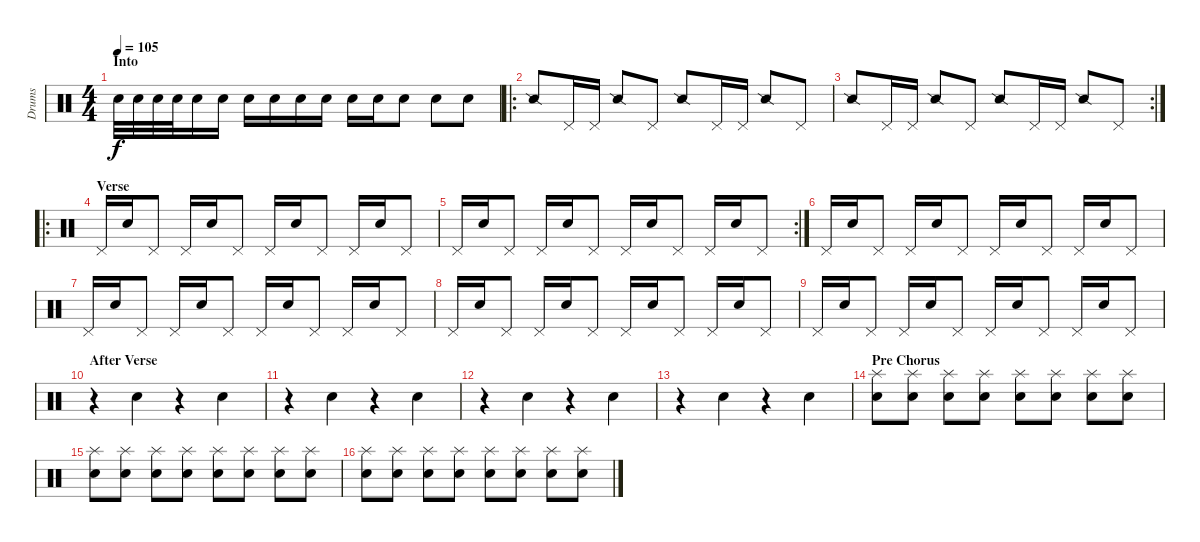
\track ("Drums" "Drums") {instrument percussion}
\staff {score}
\articulation defaults
\ts (4 4)
\section ("" "Into")
\tempo 105
\clef neutral
\ks c "Electric Snare (hit)".32{dy f} "Electric Snare (hit)".32 "Electric Snare (hit)".32 "Electric Snare (hit)".32 "Electric Snare (hit)".16 "Electric Snare (hit)".16 "Electric Snare (hit)".16 "Electric Snare (hit)".16 "Electric Snare (hit)".16 "Electric Snare (hit)".16 "Electric Snare (hit)".16 "Electric Snare (hit)".16 "Electric Snare (hit)".8 "Electric Snare (hit)".8 "Electric Snare (hit)".8
|
\ro "Snare (side stick) 2".8 "Pedal Hi-Hat (hit)".16 "Pedal Hi-Hat (hit)".16 "Snare (side stick) 2".8 "Pedal Hi-Hat (hit)".8 "Snare (side stick) 2".8 "Pedal Hi-Hat (hit)".16 "Pedal Hi-Hat (hit)".16 "Snare (side stick) 2".8 "Pedal Hi-Hat (hit)".8
|
\rc 2 "Snare (side stick) 2".8 "Pedal Hi-Hat (hit)".16 "Pedal Hi-Hat (hit)".16 "Snare (side stick) 2".8 "Pedal Hi-Hat (hit)".8 "Snare (side stick) 2".8 "Pedal Hi-Hat (hit)".16 "Pedal Hi-Hat (hit)".16 "Snare (side stick) 2".8 "Pedal Hi-Hat (hit)".8
|
\ro
\section ("" "Verse")
"Pedal Hi-Hat (hit)".16 "Electric Snare (hit)".16 "Pedal Hi-Hat (hit)".8 "Pedal Hi-Hat (hit)".16 "Electric Snare (hit)".16 "Pedal Hi-Hat (hit)".8 "Pedal Hi-Hat (hit)".16 "Electric Snare (hit)".16 "Pedal Hi-Hat (hit)".8 "Pedal Hi-Hat (hit)".16 "Electric Snare (hit)".16 "Pedal Hi-Hat (hit)".8 |
\rc 2 "Pedal Hi-Hat (hit)".16 "Electric Snare (hit)".16 "Pedal Hi-Hat (hit)".8 "Pedal Hi-Hat (hit)".16 "Electric Snare (hit)".16 "Pedal Hi-Hat (hit)".8 "Pedal Hi-Hat (hit)".16 "Electric Snare (hit)".16 "Pedal Hi-Hat (hit)".8 "Pedal Hi-Hat (hit)".16 "Electric Snare (hit)".16 "Pedal Hi-Hat (hit)".8
|
"Pedal Hi-Hat (hit)".16 "Electric Snare (hit)".16 "Pedal Hi-Hat (hit)".8 "Pedal Hi-Hat (hit)".16 "Electric Snare (hit)".16 "Pedal Hi-Hat (hit)".8 "Pedal Hi-Hat (hit)".16 "Electric Snare (hit)".16 "Pedal Hi-Hat (hit)".8 "Pedal Hi-Hat (hit)".16 "Electric Snare (hit)".16 "Pedal Hi-Hat (hit)".8 |
"Pedal Hi-Hat (hit)".16 "Electric Snare (hit)".16 "Pedal Hi-Hat (hit)".8 "Pedal Hi-Hat (hit)".16 "Electric Snare (hit)".16 "Pedal Hi-Hat (hit)".8 "Pedal Hi-Hat (hit)".16 "Electric Snare (hit)".16 "Pedal Hi-Hat (hit)".8 "Pedal Hi-Hat (hit)".16 "Electric Snare (hit)".16 "Pedal Hi-Hat (hit)".8 |
"Pedal Hi-Hat (hit)".16 "Electric Snare (hit)".16 "Pedal Hi-Hat (hit)".8 "Pedal Hi-Hat (hit)".16 "Electric Snare (hit)".16 "Pedal Hi-Hat (hit)".8 "Pedal Hi-Hat (hit)".16 "Electric Snare (hit)".16 "Pedal Hi-Hat (hit)".8 "Pedal Hi-Hat (hit)".16 "Electric Snare (hit)".16 "Pedal Hi-Hat (hit)".8 |
"Pedal Hi-Hat (hit)".16 "Electric Snare (hit)".16 "Pedal Hi-Hat (hit)".8 "Pedal Hi-Hat (hit)".16 "Electric Snare (hit)".16 "Pedal Hi-Hat (hit)".8 "Pedal Hi-Hat (hit)".16 "Electric Snare (hit)".16 "Pedal Hi-Hat (hit)".8 "Pedal Hi-Hat (hit)".16 "Electric Snare (hit)".16 "Pedal Hi-Hat (hit)".8 |
\section ("" "After Verse")
r.4 "Electric Snare (hit)".4 r.4 "Electric Snare (hit)".4 |
r.4 "Electric Snare (hit)".4 r.4 "Electric Snare (hit)".4 |
r.4 "Electric Snare (hit)".4 r.4 "Electric Snare (hit)".4 |
r.4 "Electric Snare (hit)".4 r.4 "Electric Snare (hit)".4 |
\section ("" "Pre Chorus")
("Electric Snare (hit)" "Splash (hit)").8 ("Electric Snare (hit)" "Splash (hit)").8 ("Electric Snare (hit)" "Splash (hit)").8 ("Electric Snare (hit)" "Splash (hit)").8 ("Electric Snare (hit)" "Splash (hit)").8 ("Electric Snare (hit)" "Splash (hit)").8 ("Electric Snare (hit)" "Splash (hit)").8 ("Electric Snare (hit)" "Splash (hit)").8 |
("Electric Snare (hit)" "Splash (hit)").8 ("Electric Snare (hit)" "Splash (hit)").8 ("Electric Snare (hit)" "Splash (hit)").8 ("Electric Snare (hit)" "Splash (hit)").8 ("Electric Snare (hit)" "Splash (hit)").8 ("Electric Snare (hit)" "Splash (hit)").8 ("Electric Snare (hit)" "Splash (hit)").8 ("Electric Snare (hit)" "Splash (hit)").8 |
("Electric Snare (hit)" "Splash (hit)").8 ("Electric Snare (hit)" "Splash (hit)").8 ("Electric Snare (hit)" "Splash (hit)").8 ("Electric Snare (hit)" "Splash (hit)").8 ("Electric Snare (hit)" "Splash (hit)").8 ("Electric Snare (hit)" "Splash (hit)").8 ("Electric Snare (hit)" "Splash (hit)").8 ("Electric Snare (hit)" "Splash (hit)").8
